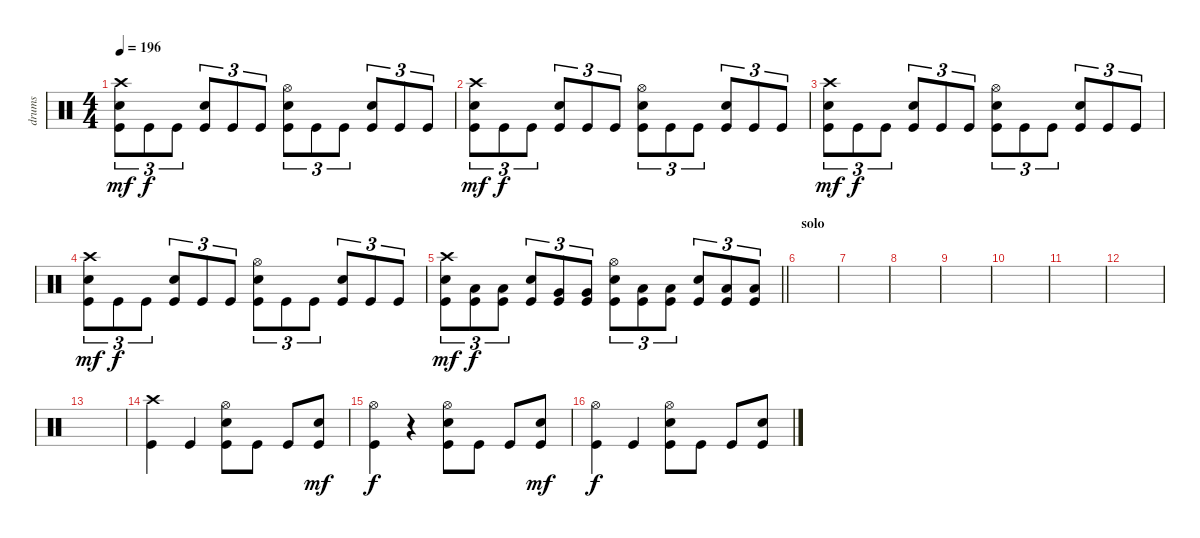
\track ("drums" "drums") {instrument percussion}
\staff {score}
\articulation defaults
\ts (4 4)
\tempo 196
\clef neutral
\ks c
("Crash high (hit)" "Electric Snare (hit)" "Kick (hit)").8{tu (3 2) dy mf} "Kick (hit)".8{tu (3 2) dy f} "Kick (hit)".8{tu (3 2)} ("Electric Snare (hit)" "Kick (hit)").8{tu (3 2)} "Kick (hit)".8{tu (3 2)} "Kick (hit)".8{tu (3 2)} ("Hi-Hat (open)" "Electric Snare (hit)" "Kick (hit)").8{tu (3 2)} "Kick (hit)".8{tu (3 2)} "Kick (hit)".8{tu (3 2)} ("Electric Snare (hit)" "Kick (hit)").8{tu (3 2)} "Kick (hit)".8{tu (3 2)} "Kick (hit)".8{tu (3 2)} |
("Crash high (hit)" "Electric Snare (hit)" "Kick (hit)").8{tu (3 2) dy mf} "Kick (hit)".8{tu (3 2) dy f} "Kick (hit)".8{tu (3 2)} ("Electric Snare (hit)" "Kick (hit)").8{tu (3 2)} "Kick (hit)".8{tu (3 2)} "Kick (hit)".8{tu (3 2)} ("Hi-Hat (open)" "Electric Snare (hit)" "Kick (hit)").8{tu (3 2)} "Kick (hit)".8{tu (3 2)} "Kick (hit)".8{tu (3 2)} ("Electric Snare (hit)" "Kick (hit)").8{tu (3 2)} "Kick (hit)".8{tu (3 2)} "Kick (hit)".8{tu (3 2)} |
("Crash high (hit)" "Electric Snare (hit)" "Kick (hit)").8{tu (3 2) dy mf} "Kick (hit)".8{tu (3 2) dy f} "Kick (hit)".8{tu (3 2)} ("Electric Snare (hit)" "Kick (hit)").8{tu (3 2)} "Kick (hit)".8{tu (3 2)} "Kick (hit)".8{tu (3 2)} ("Hi-Hat (open)" "Electric Snare (hit)" "Kick (hit)").8{tu (3 2)} "Kick (hit)".8{tu (3 2)} "Kick (hit)".8{tu (3 2)} ("Electric Snare (hit)" "Kick (hit)").8{tu (3 2)} "Kick (hit)".8{tu (3 2)} "Kick (hit)".8{tu (3 2)} |
("Crash high (hit)" "Electric Snare (hit)" "Kick (hit)").8{tu (3 2) dy mf} "Kick (hit)".8{tu (3 2) dy f} "Kick (hit)".8{tu (3 2)} ("Electric Snare (hit)" "Kick (hit)").8{tu (3 2)} "Kick (hit)".8{tu (3 2)} "Kick (hit)".8{tu (3 2)} ("Hi-Hat (open)" "Electric Snare (hit)" "Kick (hit)").8{tu (3 2)} "Kick (hit)".8{tu (3 2)} "Kick (hit)".8{tu (3 2)} ("Electric Snare (hit)" "Kick (hit)").8{tu (3 2)} "Kick (hit)".8{tu (3 2)} "Kick (hit)".8{tu (3 2)} |
\barLineRight lightlight
("Crash high (hit)" "Electric Snare (hit)" "Kick (hit)").8{tu (3 2) dy mf} ("Low Tom (hit)" "Kick (hit)").8{tu (3 2) dy f} ("Low Tom (hit)" "Kick (hit)").8{tu (3 2)} ("Electric Snare (hit)" "Kick (hit)").8{tu (3 2)} ("Very Low Tom (hit)" "Kick (hit)").8{tu (3 2)} ("Very Low Tom (hit)" "Kick (hit)").8{tu (3 2)} ("Hi-Hat (open)" "Electric Snare (hit)" "Kick (hit)").8{tu (3 2)} ("Low Floor Tom (hit)" "Kick (hit)").8{tu (3 2)} ("Low Floor Tom (hit)" "Kick (hit)").8{tu (3 2)} ("Electric Snare (hit)" "Kick (hit)").8{tu (3 2)} ("Low Floor Tom (hit)" "Kick (hit)").8{tu (3 2)} ("Low Floor Tom (hit)" "Kick (hit)").8{tu (3 2)} |
\section ("" "solo")
|
|
|
|
|
|
|
|
("Crash high (hit)" "Kick (hit)").4 "Kick (hit)".4 ("Hi-Hat (open)" "Electric Snare (hit)" "Kick (hit)").8 "Kick (hit)".8 "Kick (hit)".8 ("Electric Snare (hit)" "Kick (hit)").8{dy mf} |
("Hi-Hat (open)" "Kick (hit)").4{dy f} r.4 ("Hi-Hat (open)" "Electric Snare (hit)" "Kick (hit)").8 "Kick (hit)".8 "Kick (hit)".8 ("Electric Snare (hit)" "Kick (hit)").8{dy mf} |
("Hi-Hat (open)" "Kick (hit)").4{dy f} "Kick (hit)".4 ("Hi-Hat (open)" "Electric Snare (hit)" "Kick (hit)").8 "Kick (hit)".8 "Kick (hit)".8 ("Electric Snare (hit)" "Kick (hit)").8
